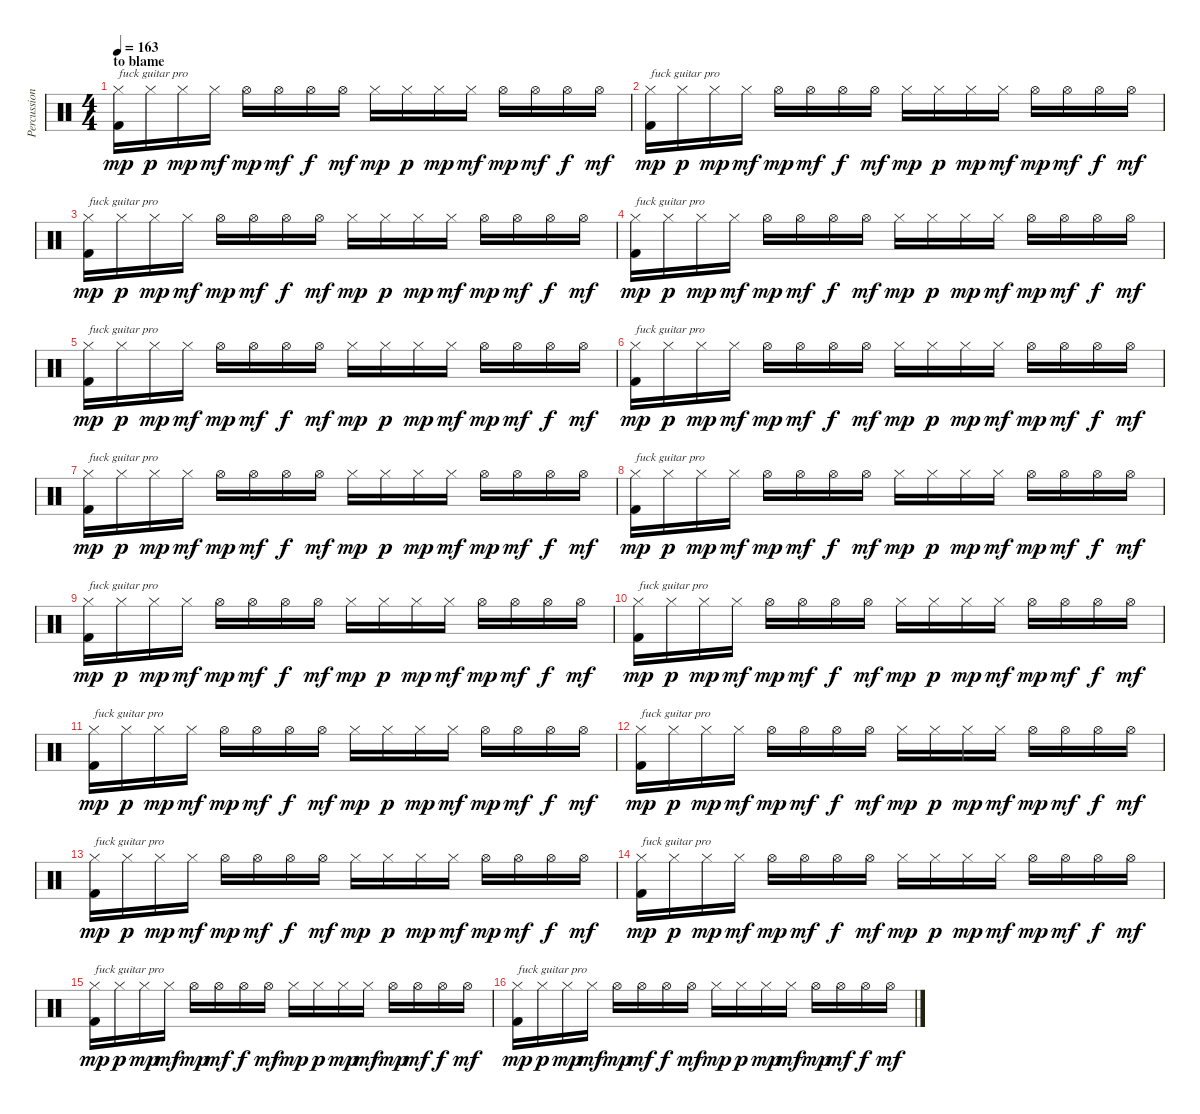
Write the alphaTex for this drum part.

\track ("Percussion" "Percussion") {instrument percussion}
\staff {score}
\articulation defaults
\ts (4 4)
\section ("" "to blame")
\tempo 163
\clef neutral
\ks c
("Hi-Hat (closed)" "Kick (hit) 2").16{txt "fuck guitar pro" dy mp} "Hi-Hat (closed)".16{dy p} "Hi-Hat (closed)".16{dy mp} "Hi-Hat (closed)".16{dy mf} "Hi-Hat (open)".16{dy mp} "Hi-Hat (open)".16{dy mf} "Hi-Hat (open)".16{dy f} "Hi-Hat (open)".16{dy mf} "Hi-Hat (closed)".16{dy mp} "Hi-Hat (closed)".16{dy p} "Hi-Hat (closed)".16{dy mp} "Hi-Hat (closed)".16{dy mf} "Hi-Hat (open)".16{dy mp} "Hi-Hat (open)".16{dy mf} "Hi-Hat (open)".16{dy f} "Hi-Hat (open)".16{dy mf} |
("Hi-Hat (closed)" "Kick (hit) 2").16{txt "fuck guitar pro" dy mp} "Hi-Hat (closed)".16{dy p} "Hi-Hat (closed)".16{dy mp} "Hi-Hat (closed)".16{dy mf} "Hi-Hat (open)".16{dy mp} "Hi-Hat (open)".16{dy mf} "Hi-Hat (open)".16{dy f} "Hi-Hat (open)".16{dy mf} "Hi-Hat (closed)".16{dy mp} "Hi-Hat (closed)".16{dy p} "Hi-Hat (closed)".16{dy mp} "Hi-Hat (closed)".16{dy mf} "Hi-Hat (open)".16{dy mp} "Hi-Hat (open)".16{dy mf} "Hi-Hat (open)".16{dy f} "Hi-Hat (open)".16{dy mf} |
("Hi-Hat (closed)" "Kick (hit) 2").16{txt "fuck guitar pro" dy mp} "Hi-Hat (closed)".16{dy p} "Hi-Hat (closed)".16{dy mp} "Hi-Hat (closed)".16{dy mf} "Hi-Hat (open)".16{dy mp} "Hi-Hat (open)".16{dy mf} "Hi-Hat (open)".16{dy f} "Hi-Hat (open)".16{dy mf} "Hi-Hat (closed)".16{dy mp} "Hi-Hat (closed)".16{dy p} "Hi-Hat (closed)".16{dy mp} "Hi-Hat (closed)".16{dy mf} "Hi-Hat (open)".16{dy mp} "Hi-Hat (open)".16{dy mf} "Hi-Hat (open)".16{dy f} "Hi-Hat (open)".16{dy mf} |
("Hi-Hat (closed)" "Kick (hit) 2").16{txt "fuck guitar pro" dy mp} "Hi-Hat (closed)".16{dy p} "Hi-Hat (closed)".16{dy mp} "Hi-Hat (closed)".16{dy mf} "Hi-Hat (open)".16{dy mp} "Hi-Hat (open)".16{dy mf} "Hi-Hat (open)".16{dy f} "Hi-Hat (open)".16{dy mf} "Hi-Hat (closed)".16{dy mp} "Hi-Hat (closed)".16{dy p} "Hi-Hat (closed)".16{dy mp} "Hi-Hat (closed)".16{dy mf} "Hi-Hat (open)".16{dy mp} "Hi-Hat (open)".16{dy mf} "Hi-Hat (open)".16{dy f} "Hi-Hat (open)".16{dy mf} |
("Hi-Hat (closed)" "Kick (hit) 2").16{txt "fuck guitar pro" dy mp} "Hi-Hat (closed)".16{dy p} "Hi-Hat (closed)".16{dy mp} "Hi-Hat (closed)".16{dy mf} "Hi-Hat (open)".16{dy mp} "Hi-Hat (open)".16{dy mf} "Hi-Hat (open)".16{dy f} "Hi-Hat (open)".16{dy mf} "Hi-Hat (closed)".16{dy mp} "Hi-Hat (closed)".16{dy p} "Hi-Hat (closed)".16{dy mp} "Hi-Hat (closed)".16{dy mf} "Hi-Hat (open)".16{dy mp} "Hi-Hat (open)".16{dy mf} "Hi-Hat (open)".16{dy f} "Hi-Hat (open)".16{dy mf} |
("Hi-Hat (closed)" "Kick (hit) 2").16{txt "fuck guitar pro" dy mp} "Hi-Hat (closed)".16{dy p} "Hi-Hat (closed)".16{dy mp} "Hi-Hat (closed)".16{dy mf} "Hi-Hat (open)".16{dy mp} "Hi-Hat (open)".16{dy mf} "Hi-Hat (open)".16{dy f} "Hi-Hat (open)".16{dy mf} "Hi-Hat (closed)".16{dy mp} "Hi-Hat (closed)".16{dy p} "Hi-Hat (closed)".16{dy mp} "Hi-Hat (closed)".16{dy mf} "Hi-Hat (open)".16{dy mp} "Hi-Hat (open)".16{dy mf} "Hi-Hat (open)".16{dy f} "Hi-Hat (open)".16{dy mf} |
("Hi-Hat (closed)" "Kick (hit) 2").16{txt "fuck guitar pro" dy mp} "Hi-Hat (closed)".16{dy p} "Hi-Hat (closed)".16{dy mp} "Hi-Hat (closed)".16{dy mf} "Hi-Hat (open)".16{dy mp} "Hi-Hat (open)".16{dy mf} "Hi-Hat (open)".16{dy f} "Hi-Hat (open)".16{dy mf} "Hi-Hat (closed)".16{dy mp} "Hi-Hat (closed)".16{dy p} "Hi-Hat (closed)".16{dy mp} "Hi-Hat (closed)".16{dy mf} "Hi-Hat (open)".16{dy mp} "Hi-Hat (open)".16{dy mf} "Hi-Hat (open)".16{dy f} "Hi-Hat (open)".16{dy mf} |
("Hi-Hat (closed)" "Kick (hit) 2").16{txt "fuck guitar pro" dy mp} "Hi-Hat (closed)".16{dy p} "Hi-Hat (closed)".16{dy mp} "Hi-Hat (closed)".16{dy mf} "Hi-Hat (open)".16{dy mp} "Hi-Hat (open)".16{dy mf} "Hi-Hat (open)".16{dy f} "Hi-Hat (open)".16{dy mf} "Hi-Hat (closed)".16{dy mp} "Hi-Hat (closed)".16{dy p} "Hi-Hat (closed)".16{dy mp} "Hi-Hat (closed)".16{dy mf} "Hi-Hat (open)".16{dy mp} "Hi-Hat (open)".16{dy mf} "Hi-Hat (open)".16{dy f} "Hi-Hat (open)".16{dy mf} |
("Hi-Hat (closed)" "Kick (hit) 2").16{txt "fuck guitar pro" dy mp} "Hi-Hat (closed)".16{dy p} "Hi-Hat (closed)".16{dy mp} "Hi-Hat (closed)".16{dy mf} "Hi-Hat (open)".16{dy mp} "Hi-Hat (open)".16{dy mf} "Hi-Hat (open)".16{dy f} "Hi-Hat (open)".16{dy mf} "Hi-Hat (closed)".16{dy mp} "Hi-Hat (closed)".16{dy p} "Hi-Hat (closed)".16{dy mp} "Hi-Hat (closed)".16{dy mf} "Hi-Hat (open)".16{dy mp} "Hi-Hat (open)".16{dy mf} "Hi-Hat (open)".16{dy f} "Hi-Hat (open)".16{dy mf} |
("Hi-Hat (closed)" "Kick (hit) 2").16{txt "fuck guitar pro" dy mp} "Hi-Hat (closed)".16{dy p} "Hi-Hat (closed)".16{dy mp} "Hi-Hat (closed)".16{dy mf} "Hi-Hat (open)".16{dy mp} "Hi-Hat (open)".16{dy mf} "Hi-Hat (open)".16{dy f} "Hi-Hat (open)".16{dy mf} "Hi-Hat (closed)".16{dy mp} "Hi-Hat (closed)".16{dy p} "Hi-Hat (closed)".16{dy mp} "Hi-Hat (closed)".16{dy mf} "Hi-Hat (open)".16{dy mp} "Hi-Hat (open)".16{dy mf} "Hi-Hat (open)".16{dy f} "Hi-Hat (open)".16{dy mf} |
("Hi-Hat (closed)" "Kick (hit) 2").16{txt "fuck guitar pro" dy mp} "Hi-Hat (closed)".16{dy p} "Hi-Hat (closed)".16{dy mp} "Hi-Hat (closed)".16{dy mf} "Hi-Hat (open)".16{dy mp} "Hi-Hat (open)".16{dy mf} "Hi-Hat (open)".16{dy f} "Hi-Hat (open)".16{dy mf} "Hi-Hat (closed)".16{dy mp} "Hi-Hat (closed)".16{dy p} "Hi-Hat (closed)".16{dy mp} "Hi-Hat (closed)".16{dy mf} "Hi-Hat (open)".16{dy mp} "Hi-Hat (open)".16{dy mf} "Hi-Hat (open)".16{dy f} "Hi-Hat (open)".16{dy mf} |
("Hi-Hat (closed)" "Kick (hit) 2").16{txt "fuck guitar pro" dy mp} "Hi-Hat (closed)".16{dy p} "Hi-Hat (closed)".16{dy mp} "Hi-Hat (closed)".16{dy mf} "Hi-Hat (open)".16{dy mp} "Hi-Hat (open)".16{dy mf} "Hi-Hat (open)".16{dy f} "Hi-Hat (open)".16{dy mf} "Hi-Hat (closed)".16{dy mp} "Hi-Hat (closed)".16{dy p} "Hi-Hat (closed)".16{dy mp} "Hi-Hat (closed)".16{dy mf} "Hi-Hat (open)".16{dy mp} "Hi-Hat (open)".16{dy mf} "Hi-Hat (open)".16{dy f} "Hi-Hat (open)".16{dy mf} |
("Hi-Hat (closed)" "Kick (hit) 2").16{txt "fuck guitar pro" dy mp} "Hi-Hat (closed)".16{dy p} "Hi-Hat (closed)".16{dy mp} "Hi-Hat (closed)".16{dy mf} "Hi-Hat (open)".16{dy mp} "Hi-Hat (open)".16{dy mf} "Hi-Hat (open)".16{dy f} "Hi-Hat (open)".16{dy mf} "Hi-Hat (closed)".16{dy mp} "Hi-Hat (closed)".16{dy p} "Hi-Hat (closed)".16{dy mp} "Hi-Hat (closed)".16{dy mf} "Hi-Hat (open)".16{dy mp} "Hi-Hat (open)".16{dy mf} "Hi-Hat (open)".16{dy f} "Hi-Hat (open)".16{dy mf} |
("Hi-Hat (closed)" "Kick (hit) 2").16{txt "fuck guitar pro" dy mp} "Hi-Hat (closed)".16{dy p} "Hi-Hat (closed)".16{dy mp} "Hi-Hat (closed)".16{dy mf} "Hi-Hat (open)".16{dy mp} "Hi-Hat (open)".16{dy mf} "Hi-Hat (open)".16{dy f} "Hi-Hat (open)".16{dy mf} "Hi-Hat (closed)".16{dy mp} "Hi-Hat (closed)".16{dy p} "Hi-Hat (closed)".16{dy mp} "Hi-Hat (closed)".16{dy mf} "Hi-Hat (open)".16{dy mp} "Hi-Hat (open)".16{dy mf} "Hi-Hat (open)".16{dy f} "Hi-Hat (open)".16{dy mf} |
("Hi-Hat (closed)" "Kick (hit) 2").16{txt "fuck guitar pro" dy mp} "Hi-Hat (closed)".16{dy p} "Hi-Hat (closed)".16{dy mp} "Hi-Hat (closed)".16{dy mf} "Hi-Hat (open)".16{dy mp} "Hi-Hat (open)".16{dy mf} "Hi-Hat (open)".16{dy f} "Hi-Hat (open)".16{dy mf} "Hi-Hat (closed)".16{dy mp} "Hi-Hat (closed)".16{dy p} "Hi-Hat (closed)".16{dy mp} "Hi-Hat (closed)".16{dy mf} "Hi-Hat (open)".16{dy mp} "Hi-Hat (open)".16{dy mf} "Hi-Hat (open)".16{dy f} "Hi-Hat (open)".16{dy mf} |
("Hi-Hat (closed)" "Kick (hit) 2").16{txt "fuck guitar pro" dy mp} "Hi-Hat (closed)".16{dy p} "Hi-Hat (closed)".16{dy mp} "Hi-Hat (closed)".16{dy mf} "Hi-Hat (open)".16{dy mp} "Hi-Hat (open)".16{dy mf} "Hi-Hat (open)".16{dy f} "Hi-Hat (open)".16{dy mf} "Hi-Hat (closed)".16{dy mp} "Hi-Hat (closed)".16{dy p} "Hi-Hat (closed)".16{dy mp} "Hi-Hat (closed)".16{dy mf} "Hi-Hat (open)".16{dy mp} "Hi-Hat (open)".16{dy mf} "Hi-Hat (open)".16{dy f} "Hi-Hat (open)".16{dy mf}
